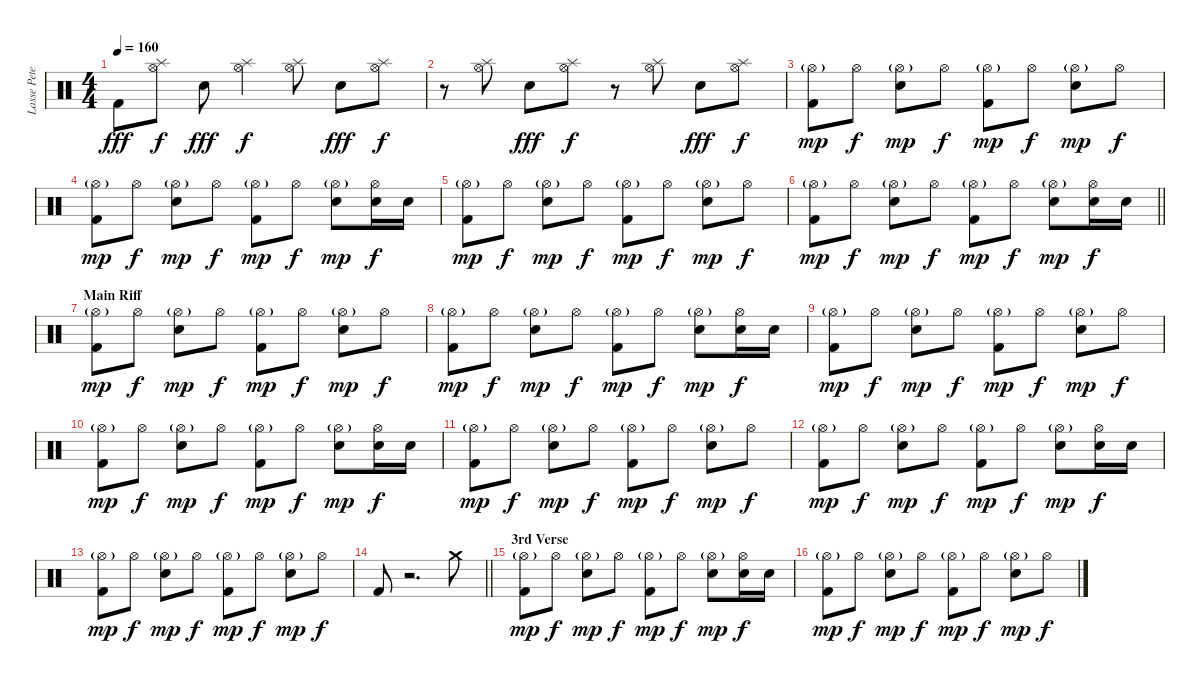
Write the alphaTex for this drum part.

\track ("Lasse Petersen - Drums" "Lasse Pete") {instrument percussion}
\staff {score}
\articulation defaults
\ts (4 4)
\tempo 160
\clef neutral
\ks c "Kick (hit) 2".8{dy fff}
("Hi-Hat (open)" "Splash (hit)").8{dy f} "Electric Snare (hit)".8{dy fff} ("Hi-Hat (open)" "Splash (hit)").4{dy f} ("Hi-Hat (open)" "Splash (hit)").8 "Electric Snare (hit)".8{dy fff} ("Hi-Hat (open)" "Splash (hit)").8{dy f} |
r.8 ("Hi-Hat (open)" "Splash (hit)").8 "Electric Snare (hit)".8{dy fff} ("Hi-Hat (open)" "Splash (hit)").8{dy f} r.8 ("Hi-Hat (open)" "Splash (hit)").8 "Electric Snare (hit)".8{dy fff} ("Hi-Hat (open)" "Splash (hit)").8{dy f} |
("Kick (hit) 2" "Hi-Hat (open)"{g}).8{dy mp} "Hi-Hat (open)".8{dy f} ("Electric Snare (hit)" "Hi-Hat (open)"{g}).8{dy mp} "Hi-Hat (open)".8{dy f} ("Kick (hit) 2" "Hi-Hat (open)"{g}).8{dy mp} "Hi-Hat (open)".8{dy f} ("Electric Snare (hit)" "Hi-Hat (open)"{g}).8{dy mp} "Hi-Hat (open)".8{dy f} |
("Kick (hit) 2" "Hi-Hat (open)"{g}).8{dy mp} "Hi-Hat (open)".8{dy f} ("Electric Snare (hit)" "Hi-Hat (open)"{g}).8{dy mp} "Hi-Hat (open)".8{dy f} ("Kick (hit) 2" "Hi-Hat (open)"{g}).8{dy mp} "Hi-Hat (open)".8{dy f} ("Electric Snare (hit)" "Hi-Hat (open)"{g}).8{dy mp} ("Electric Snare (hit)" "Hi-Hat (open)").16{dy f} "Electric Snare (hit)".16 |
("Kick (hit) 2" "Hi-Hat (open)"{g}).8{dy mp} "Hi-Hat (open)".8{dy f} ("Electric Snare (hit)" "Hi-Hat (open)"{g}).8{dy mp} "Hi-Hat (open)".8{dy f} ("Kick (hit) 2" "Hi-Hat (open)"{g}).8{dy mp} "Hi-Hat (open)".8{dy f} ("Electric Snare (hit)" "Hi-Hat (open)"{g}).8{dy mp} "Hi-Hat (open)".8{dy f} |
\barLineRight lightlight
("Kick (hit) 2" "Hi-Hat (open)"{g}).8{dy mp} "Hi-Hat (open)".8{dy f} ("Electric Snare (hit)" "Hi-Hat (open)"{g}).8{dy mp} "Hi-Hat (open)".8{dy f} ("Kick (hit) 2" "Hi-Hat (open)"{g}).8{dy mp} "Hi-Hat (open)".8{dy f} ("Electric Snare (hit)" "Hi-Hat (open)"{g}).8{dy mp} ("Electric Snare (hit)" "Hi-Hat (open)").16{dy f} "Electric Snare (hit)".16 |
\section ("" "Main Riff")
("Kick (hit) 2" "Hi-Hat (open)"{g}).8{dy mp} "Hi-Hat (open)".8{dy f} ("Electric Snare (hit)" "Hi-Hat (open)"{g}).8{dy mp} "Hi-Hat (open)".8{dy f} ("Kick (hit) 2" "Hi-Hat (open)"{g}).8{dy mp} "Hi-Hat (open)".8{dy f} ("Electric Snare (hit)" "Hi-Hat (open)"{g}).8{dy mp} "Hi-Hat (open)".8{dy f} |
("Kick (hit) 2" "Hi-Hat (open)"{g}).8{dy mp} "Hi-Hat (open)".8{dy f} ("Electric Snare (hit)" "Hi-Hat (open)"{g}).8{dy mp} "Hi-Hat (open)".8{dy f} ("Kick (hit) 2" "Hi-Hat (open)"{g}).8{dy mp} "Hi-Hat (open)".8{dy f} ("Electric Snare (hit)" "Hi-Hat (open)"{g}).8{dy mp} ("Electric Snare (hit)" "Hi-Hat (open)").16{dy f} "Electric Snare (hit)".16 |
("Kick (hit) 2" "Hi-Hat (open)"{g}).8{dy mp} "Hi-Hat (open)".8{dy f} ("Electric Snare (hit)" "Hi-Hat (open)"{g}).8{dy mp} "Hi-Hat (open)".8{dy f} ("Kick (hit) 2" "Hi-Hat (open)"{g}).8{dy mp} "Hi-Hat (open)".8{dy f} ("Electric Snare (hit)" "Hi-Hat (open)"{g}).8{dy mp} "Hi-Hat (open)".8{dy f} |
("Kick (hit) 2" "Hi-Hat (open)"{g}).8{dy mp} "Hi-Hat (open)".8{dy f} ("Electric Snare (hit)" "Hi-Hat (open)"{g}).8{dy mp} "Hi-Hat (open)".8{dy f} ("Kick (hit) 2" "Hi-Hat (open)"{g}).8{dy mp} "Hi-Hat (open)".8{dy f} ("Electric Snare (hit)" "Hi-Hat (open)"{g}).8{dy mp} ("Electric Snare (hit)" "Hi-Hat (open)").16{dy f} "Electric Snare (hit)".16 |
("Kick (hit) 2" "Hi-Hat (open)"{g}).8{dy mp} "Hi-Hat (open)".8{dy f} ("Electric Snare (hit)" "Hi-Hat (open)"{g}).8{dy mp} "Hi-Hat (open)".8{dy f} ("Kick (hit) 2" "Hi-Hat (open)"{g}).8{dy mp} "Hi-Hat (open)".8{dy f} ("Electric Snare (hit)" "Hi-Hat (open)"{g}).8{dy mp} "Hi-Hat (open)".8{dy f} |
("Kick (hit) 2" "Hi-Hat (open)"{g}).8{dy mp} "Hi-Hat (open)".8{dy f} ("Electric Snare (hit)" "Hi-Hat (open)"{g}).8{dy mp} "Hi-Hat (open)".8{dy f} ("Kick (hit) 2" "Hi-Hat (open)"{g}).8{dy mp} "Hi-Hat (open)".8{dy f} ("Electric Snare (hit)" "Hi-Hat (open)"{g}).8{dy mp} ("Electric Snare (hit)" "Hi-Hat (open)").16{dy f} "Electric Snare (hit)".16 |
("Kick (hit) 2" "Hi-Hat (open)"{g}).8{dy mp} "Hi-Hat (open)".8{dy f} ("Electric Snare (hit)" "Hi-Hat (open)"{g}).8{dy mp} "Hi-Hat (open)".8{dy f} ("Kick (hit) 2" "Hi-Hat (open)"{g}).8{dy mp} "Hi-Hat (open)".8{dy f} ("Electric Snare (hit)" "Hi-Hat (open)"{g}).8{dy mp} "Hi-Hat (open)".8{dy f} |
\barLineRight lightlight "Kick (hit) 2".8
r.2{d} "Crash medium (hit)".8 |
\section ("" "3rd Verse")
("Kick (hit) 2" "Hi-Hat (open)"{g}).8{dy mp} "Hi-Hat (open)".8{dy f} ("Electric Snare (hit)" "Hi-Hat (open)"{g}).8{dy mp} "Hi-Hat (open)".8{dy f} ("Kick (hit) 2" "Hi-Hat (open)"{g}).8{dy mp} "Hi-Hat (open)".8{dy f} ("Electric Snare (hit)" "Hi-Hat (open)"{g}).8{dy mp} ("Electric Snare (hit)" "Hi-Hat (open)").16{dy f} "Electric Snare (hit)".16 |
("Kick (hit) 2" "Hi-Hat (open)"{g}).8{dy mp} "Hi-Hat (open)".8{dy f} ("Electric Snare (hit)" "Hi-Hat (open)"{g}).8{dy mp} "Hi-Hat (open)".8{dy f} ("Kick (hit) 2" "Hi-Hat (open)"{g}).8{dy mp} "Hi-Hat (open)".8{dy f} ("Electric Snare (hit)" "Hi-Hat (open)"{g}).8{dy mp} "Hi-Hat (open)".8{dy f}
